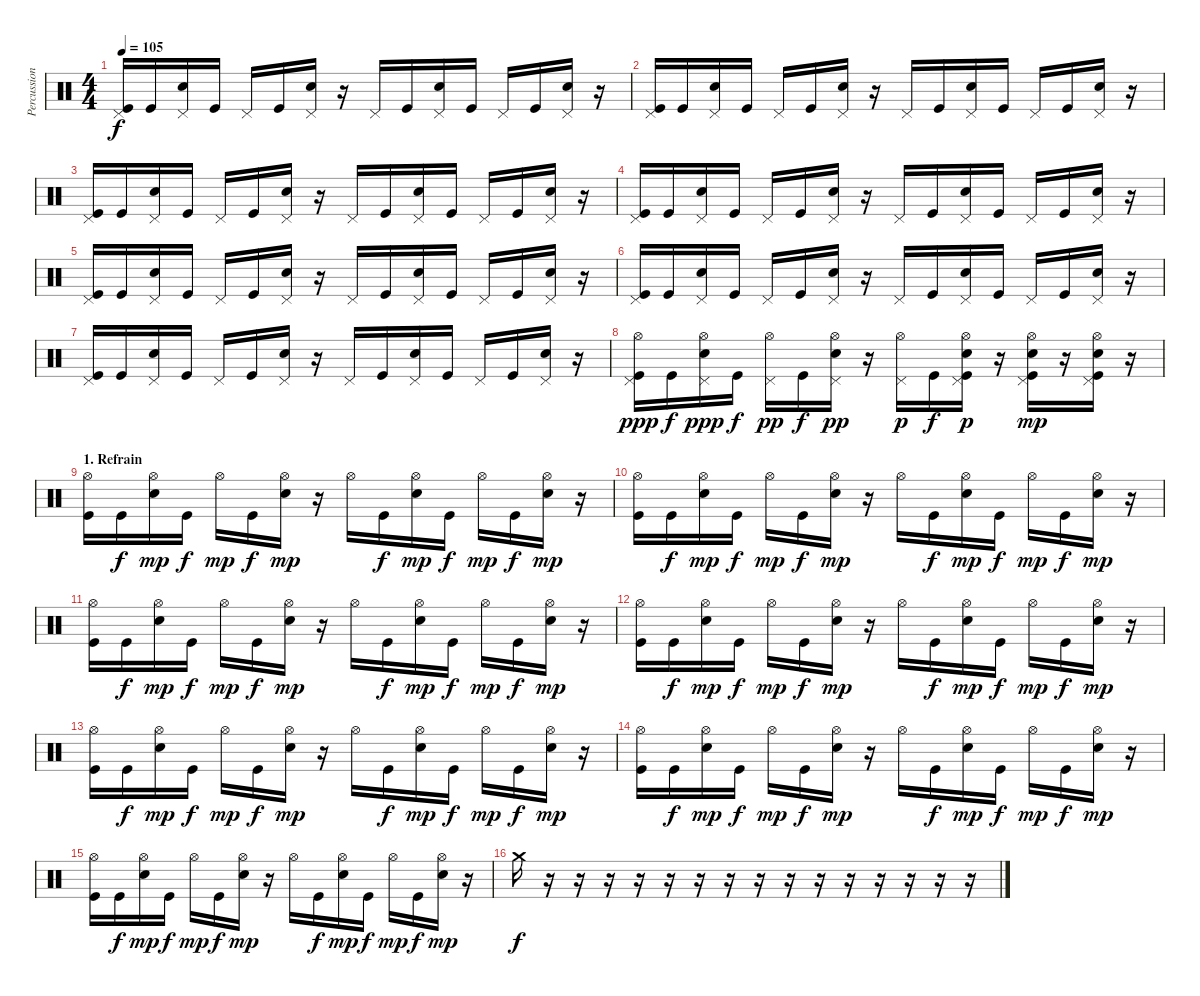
\track ("Percussion" "Percussion") {instrument percussion}
\staff {score}
\articulation defaults
\ts (4 4)
\tempo 105
\clef neutral
\ks c
("Pedal Hi-Hat (hit)" "Kick (hit)").16{dy f} "Kick (hit)".16 ("Pedal Hi-Hat (hit)" "Snare (hit) 2").16 "Kick (hit)".16 "Pedal Hi-Hat (hit)".16 "Kick (hit)".16 ("Pedal Hi-Hat (hit)" "Snare (hit) 2").16 r.16 "Pedal Hi-Hat (hit)".16 "Kick (hit)".16 ("Pedal Hi-Hat (hit)" "Snare (hit) 2").16 "Kick (hit)".16 "Pedal Hi-Hat (hit)".16 "Kick (hit)".16 ("Pedal Hi-Hat (hit)" "Snare (hit) 2").16 r.16 |
("Pedal Hi-Hat (hit)" "Kick (hit)").16 "Kick (hit)".16 ("Pedal Hi-Hat (hit)" "Snare (hit) 2").16 "Kick (hit)".16 "Pedal Hi-Hat (hit)".16 "Kick (hit)".16 ("Pedal Hi-Hat (hit)" "Snare (hit) 2").16 r.16 "Pedal Hi-Hat (hit)".16 "Kick (hit)".16 ("Pedal Hi-Hat (hit)" "Snare (hit) 2").16 "Kick (hit)".16 "Pedal Hi-Hat (hit)".16 "Kick (hit)".16 ("Pedal Hi-Hat (hit)" "Snare (hit) 2").16 r.16 |
("Pedal Hi-Hat (hit)" "Kick (hit)").16 "Kick (hit)".16 ("Pedal Hi-Hat (hit)" "Snare (hit) 2").16 "Kick (hit)".16 "Pedal Hi-Hat (hit)".16 "Kick (hit)".16 ("Pedal Hi-Hat (hit)" "Snare (hit) 2").16 r.16 "Pedal Hi-Hat (hit)".16 "Kick (hit)".16 ("Pedal Hi-Hat (hit)" "Snare (hit) 2").16 "Kick (hit)".16 "Pedal Hi-Hat (hit)".16 "Kick (hit)".16 ("Pedal Hi-Hat (hit)" "Snare (hit) 2").16 r.16 |
("Pedal Hi-Hat (hit)" "Kick (hit)").16 "Kick (hit)".16 ("Pedal Hi-Hat (hit)" "Snare (hit) 2").16 "Kick (hit)".16 "Pedal Hi-Hat (hit)".16 "Kick (hit)".16 ("Pedal Hi-Hat (hit)" "Snare (hit) 2").16 r.16 "Pedal Hi-Hat (hit)".16 "Kick (hit)".16 ("Pedal Hi-Hat (hit)" "Snare (hit) 2").16 "Kick (hit)".16 "Pedal Hi-Hat (hit)".16 "Kick (hit)".16 ("Pedal Hi-Hat (hit)" "Snare (hit) 2").16 r.16 |
("Pedal Hi-Hat (hit)" "Kick (hit)").16 "Kick (hit)".16 ("Pedal Hi-Hat (hit)" "Snare (hit) 2").16 "Kick (hit)".16 "Pedal Hi-Hat (hit)".16 "Kick (hit)".16 ("Pedal Hi-Hat (hit)" "Snare (hit) 2").16 r.16 "Pedal Hi-Hat (hit)".16 "Kick (hit)".16 ("Pedal Hi-Hat (hit)" "Snare (hit) 2").16 "Kick (hit)".16 "Pedal Hi-Hat (hit)".16 "Kick (hit)".16 ("Pedal Hi-Hat (hit)" "Snare (hit) 2").16 r.16 |
("Pedal Hi-Hat (hit)" "Kick (hit)").16 "Kick (hit)".16 ("Pedal Hi-Hat (hit)" "Snare (hit) 2").16 "Kick (hit)".16 "Pedal Hi-Hat (hit)".16 "Kick (hit)".16 ("Pedal Hi-Hat (hit)" "Snare (hit) 2").16 r.16 "Pedal Hi-Hat (hit)".16 "Kick (hit)".16 ("Pedal Hi-Hat (hit)" "Snare (hit) 2").16 "Kick (hit)".16 "Pedal Hi-Hat (hit)".16 "Kick (hit)".16 ("Pedal Hi-Hat (hit)" "Snare (hit) 2").16 r.16 |
("Pedal Hi-Hat (hit)" "Kick (hit)").16 "Kick (hit)".16 ("Pedal Hi-Hat (hit)" "Snare (hit) 2").16 "Kick (hit)".16 "Pedal Hi-Hat (hit)".16 "Kick (hit)".16 ("Pedal Hi-Hat (hit)" "Snare (hit) 2").16 r.16 "Pedal Hi-Hat (hit)".16 "Kick (hit)".16 ("Pedal Hi-Hat (hit)" "Snare (hit) 2").16 "Kick (hit)".16 "Pedal Hi-Hat (hit)".16 "Kick (hit)".16 ("Pedal Hi-Hat (hit)" "Snare (hit) 2").16 r.16 |
("Pedal Hi-Hat (hit)" "Kick (hit)" "Hi-Hat (open)").16{dy ppp} "Kick (hit)".16{dy f} ("Pedal Hi-Hat (hit)" "Snare (hit) 2" "Hi-Hat (open)").16{dy ppp} "Kick (hit)".16{dy f} ("Pedal Hi-Hat (hit)" "Hi-Hat (open)").16{dy pp} "Kick (hit)".16{dy f} ("Pedal Hi-Hat (hit)" "Snare (hit) 2" "Hi-Hat (open)").16{dy pp} r.16 ("Pedal Hi-Hat (hit)" "Hi-Hat (open)").16{dy p} "Kick (hit)".16{dy f} ("Pedal Hi-Hat (hit)" "Kick (hit)" "Snare (hit) 2" "Hi-Hat (open)").16{dy p} r.16 ("Pedal Hi-Hat (hit)" "Kick (hit)" "Snare (hit) 2" "Hi-Hat (open)").16{dy mp} r.16 ("Pedal Hi-Hat (hit)" "Kick (hit)" "Snare (hit) 2" "Hi-Hat (open)").16 r.16 |
\section ("" "1. Refrain")
("Hi-Hat (open)" "Kick (hit)").16 "Kick (hit)".16{dy f} ("Hi-Hat (open)" "Snare (hit) 2").16{dy mp} "Kick (hit)".16{dy f} "Hi-Hat (open)".16{dy mp} "Kick (hit)".16{dy f} ("Hi-Hat (open)" "Snare (hit) 2").16{dy mp} r.16 "Hi-Hat (open)".16 "Kick (hit)".16{dy f} ("Hi-Hat (open)" "Snare (hit) 2").16{dy mp} "Kick (hit)".16{dy f} "Hi-Hat (open)".16{dy mp} "Kick (hit)".16{dy f} ("Hi-Hat (open)" "Snare (hit) 2").16{dy mp} r.16 |
("Hi-Hat (open)" "Kick (hit)").16 "Kick (hit)".16{dy f} ("Hi-Hat (open)" "Snare (hit) 2").16{dy mp} "Kick (hit)".16{dy f} "Hi-Hat (open)".16{dy mp} "Kick (hit)".16{dy f} ("Hi-Hat (open)" "Snare (hit) 2").16{dy mp} r.16 "Hi-Hat (open)".16 "Kick (hit)".16{dy f} ("Hi-Hat (open)" "Snare (hit) 2").16{dy mp} "Kick (hit)".16{dy f} "Hi-Hat (open)".16{dy mp} "Kick (hit)".16{dy f} ("Hi-Hat (open)" "Snare (hit) 2").16{dy mp} r.16 |
("Hi-Hat (open)" "Kick (hit)").16 "Kick (hit)".16{dy f} ("Hi-Hat (open)" "Snare (hit) 2").16{dy mp} "Kick (hit)".16{dy f} "Hi-Hat (open)".16{dy mp} "Kick (hit)".16{dy f} ("Hi-Hat (open)" "Snare (hit) 2").16{dy mp} r.16 "Hi-Hat (open)".16 "Kick (hit)".16{dy f} ("Hi-Hat (open)" "Snare (hit) 2").16{dy mp} "Kick (hit)".16{dy f} "Hi-Hat (open)".16{dy mp} "Kick (hit)".16{dy f} ("Hi-Hat (open)" "Snare (hit) 2").16{dy mp} r.16 |
("Hi-Hat (open)" "Kick (hit)").16 "Kick (hit)".16{dy f} ("Hi-Hat (open)" "Snare (hit) 2").16{dy mp} "Kick (hit)".16{dy f} "Hi-Hat (open)".16{dy mp} "Kick (hit)".16{dy f} ("Hi-Hat (open)" "Snare (hit) 2").16{dy mp} r.16 "Hi-Hat (open)".16 "Kick (hit)".16{dy f} ("Hi-Hat (open)" "Snare (hit) 2").16{dy mp} "Kick (hit)".16{dy f} "Hi-Hat (open)".16{dy mp} "Kick (hit)".16{dy f} ("Hi-Hat (open)" "Snare (hit) 2").16{dy mp} r.16 |
("Hi-Hat (open)" "Kick (hit)").16 "Kick (hit)".16{dy f} ("Hi-Hat (open)" "Snare (hit) 2").16{dy mp} "Kick (hit)".16{dy f} "Hi-Hat (open)".16{dy mp} "Kick (hit)".16{dy f} ("Hi-Hat (open)" "Snare (hit) 2").16{dy mp} r.16 "Hi-Hat (open)".16 "Kick (hit)".16{dy f} ("Hi-Hat (open)" "Snare (hit) 2").16{dy mp} "Kick (hit)".16{dy f} "Hi-Hat (open)".16{dy mp} "Kick (hit)".16{dy f} ("Hi-Hat (open)" "Snare (hit) 2").16{dy mp} r.16 |
("Hi-Hat (open)" "Kick (hit)").16 "Kick (hit)".16{dy f} ("Hi-Hat (open)" "Snare (hit) 2").16{dy mp} "Kick (hit)".16{dy f} "Hi-Hat (open)".16{dy mp} "Kick (hit)".16{dy f} ("Hi-Hat (open)" "Snare (hit) 2").16{dy mp} r.16 "Hi-Hat (open)".16 "Kick (hit)".16{dy f} ("Hi-Hat (open)" "Snare (hit) 2").16{dy mp} "Kick (hit)".16{dy f} "Hi-Hat (open)".16{dy mp} "Kick (hit)".16{dy f} ("Hi-Hat (open)" "Snare (hit) 2").16{dy mp} r.16 |
("Hi-Hat (open)" "Kick (hit)").16 "Kick (hit)".16{dy f} ("Hi-Hat (open)" "Snare (hit) 2").16{dy mp} "Kick (hit)".16{dy f} "Hi-Hat (open)".16{dy mp} "Kick (hit)".16{dy f} ("Hi-Hat (open)" "Snare (hit) 2").16{dy mp} r.16 "Hi-Hat (open)".16 "Kick (hit)".16{dy f} ("Hi-Hat (open)" "Snare (hit) 2").16{dy mp} "Kick (hit)".16{dy f} "Hi-Hat (open)".16{dy mp} "Kick (hit)".16{dy f} ("Hi-Hat (open)" "Snare (hit) 2").16{dy mp} r.16 |
"Crash medium (hit)".16{dy f} r.16 r.16 r.16 r.16 r.16 r.16 r.16 r.16 r.16 r.16 r.16 r.16 r.16 r.16 r.16
